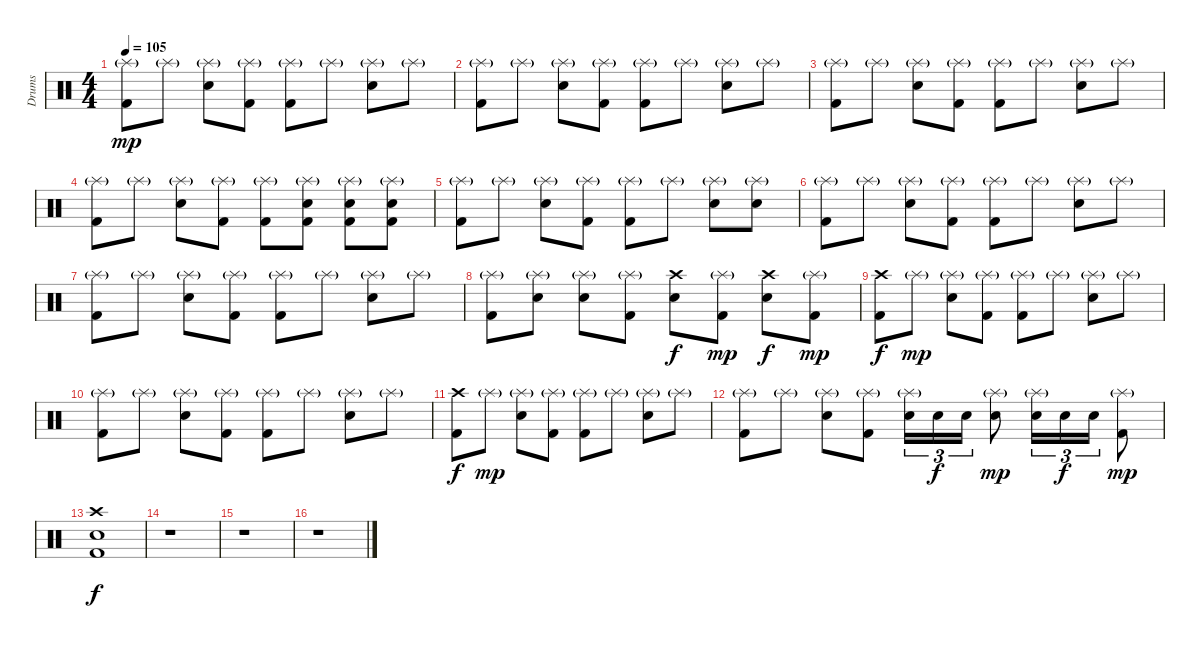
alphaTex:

\track ("Drums" "Drums") {instrument percussion}
\staff {score}
\articulation defaults
\ts (4 4)
\tempo 105
\clef neutral
\ks c
("Splash (hit)"{g} "Kick (hit) 2").8{dy mp} "Splash (hit)"{g}.8 ("Splash (hit)"{g} "Snare (hit) 2").8 ("Splash (hit)"{g} "Kick (hit) 2").8 ("Splash (hit)"{g} "Kick (hit) 2").8 "Splash (hit)"{g}.8 ("Splash (hit)"{g} "Snare (hit) 2").8 "Splash (hit)"{g}.8 |
("Splash (hit)"{g} "Kick (hit) 2").8 "Splash (hit)"{g}.8 ("Splash (hit)"{g} "Snare (hit) 2").8 ("Splash (hit)"{g} "Kick (hit) 2").8 ("Splash (hit)"{g} "Kick (hit) 2").8 "Splash (hit)"{g}.8 ("Splash (hit)"{g} "Snare (hit) 2").8 "Splash (hit)"{g}.8 |
("Splash (hit)"{g} "Kick (hit) 2").8 "Splash (hit)"{g}.8 ("Splash (hit)"{g} "Snare (hit) 2").8 ("Splash (hit)"{g} "Kick (hit) 2").8 ("Splash (hit)"{g} "Kick (hit) 2").8 "Splash (hit)"{g}.8 ("Splash (hit)"{g} "Snare (hit) 2").8 "Splash (hit)"{g}.8 |
("Splash (hit)"{g} "Kick (hit) 2").8 "Splash (hit)"{g}.8 ("Splash (hit)"{g} "Snare (hit) 2").8 ("Splash (hit)"{g} "Kick (hit) 2").8 ("Splash (hit)"{g} "Kick (hit) 2").8 ("Splash (hit)"{g} "Snare (hit) 2" "Kick (hit) 2").8 ("Splash (hit)"{g} "Snare (hit) 2" "Kick (hit) 2").8 ("Splash (hit)"{g} "Snare (hit) 2" "Kick (hit) 2").8 |
("Splash (hit)"{g} "Kick (hit) 2").8 "Splash (hit)"{g}.8 ("Splash (hit)"{g} "Snare (hit) 2").8 ("Splash (hit)"{g} "Kick (hit) 2").8 ("Splash (hit)"{g} "Kick (hit) 2").8 "Splash (hit)"{g}.8 ("Splash (hit)"{g} "Snare (hit) 2").8 ("Splash (hit)"{g} "Snare (hit) 2").8 |
("Splash (hit)"{g} "Kick (hit) 2").8 "Splash (hit)"{g}.8 ("Splash (hit)"{g} "Snare (hit) 2").8 ("Splash (hit)"{g} "Kick (hit) 2").8 ("Splash (hit)"{g} "Kick (hit) 2").8 "Splash (hit)"{g}.8 ("Splash (hit)"{g} "Snare (hit) 2").8 "Splash (hit)"{g}.8 |
("Splash (hit)"{g} "Kick (hit) 2").8 "Splash (hit)"{g}.8 ("Splash (hit)"{g} "Snare (hit) 2").8 ("Splash (hit)"{g} "Kick (hit) 2").8 ("Splash (hit)"{g} "Kick (hit) 2").8 "Splash (hit)"{g}.8 ("Splash (hit)"{g} "Snare (hit) 2").8 "Splash (hit)"{g}.8 |
("Splash (hit)"{g} "Kick (hit) 2").8 ("Splash (hit)"{g} "Snare (hit) 2").8 ("Splash (hit)"{g} "Snare (hit) 2").8 ("Splash (hit)"{g} "Kick (hit) 2").8 ("Crash high (hit)" "Snare (hit) 2").8{dy f} ("Splash (hit)"{g} "Kick (hit) 2").8{dy mp} ("Crash high (hit)" "Snare (hit) 2").8{dy f} ("Splash (hit)"{g} "Kick (hit) 2").8{dy mp} |
("Crash high (hit)" "Kick (hit) 2").8{dy f} "Splash (hit)"{g}.8{dy mp} ("Splash (hit)"{g} "Snare (hit) 2").8 ("Splash (hit)"{g} "Kick (hit) 2").8 ("Splash (hit)"{g} "Kick (hit) 2").8 "Splash (hit)"{g}.8 ("Splash (hit)"{g} "Snare (hit) 2").8 "Splash (hit)"{g}.8 |
("Splash (hit)"{g} "Kick (hit) 2").8 "Splash (hit)"{g}.8 ("Splash (hit)"{g} "Snare (hit) 2").8 ("Splash (hit)"{g} "Kick (hit) 2").8 ("Splash (hit)"{g} "Kick (hit) 2").8 "Splash (hit)"{g}.8 ("Splash (hit)"{g} "Snare (hit) 2").8 "Splash (hit)"{g}.8 |
("Crash high (hit)" "Kick (hit) 2").8{dy f} "Splash (hit)"{g}.8{dy mp} ("Splash (hit)"{g} "Snare (hit) 2").8 ("Splash (hit)"{g} "Kick (hit) 2").8 ("Splash (hit)"{g} "Kick (hit) 2").8 "Splash (hit)"{g}.8 ("Splash (hit)"{g} "Snare (hit) 2").8 "Splash (hit)"{g}.8 |
("Splash (hit)"{g} "Kick (hit) 2").8 "Splash (hit)"{g}.8 ("Splash (hit)"{g} "Snare (hit) 2").8 ("Splash (hit)"{g} "Kick (hit) 2").8 ("Splash (hit)"{g} "Snare (hit) 2").16{tu (3 2)} "Snare (hit) 2".16{tu (3 2) dy f} "Snare (hit) 2".16{tu (3 2)} ("Splash (hit)"{g} "Snare (hit) 2").8{dy mp} ("Splash (hit)"{g} "Snare (hit) 2").16{tu (3 2)} "Snare (hit) 2".16{tu (3 2) dy f} "Snare (hit) 2".16{tu (3 2)} ("Splash (hit)"{g} "Kick (hit) 2").8{dy mp} |
("Crash high (hit)" "Snare (hit) 2" "Kick (hit) 2").1{dy f} |
r.1 |
r.1 |
r.1
